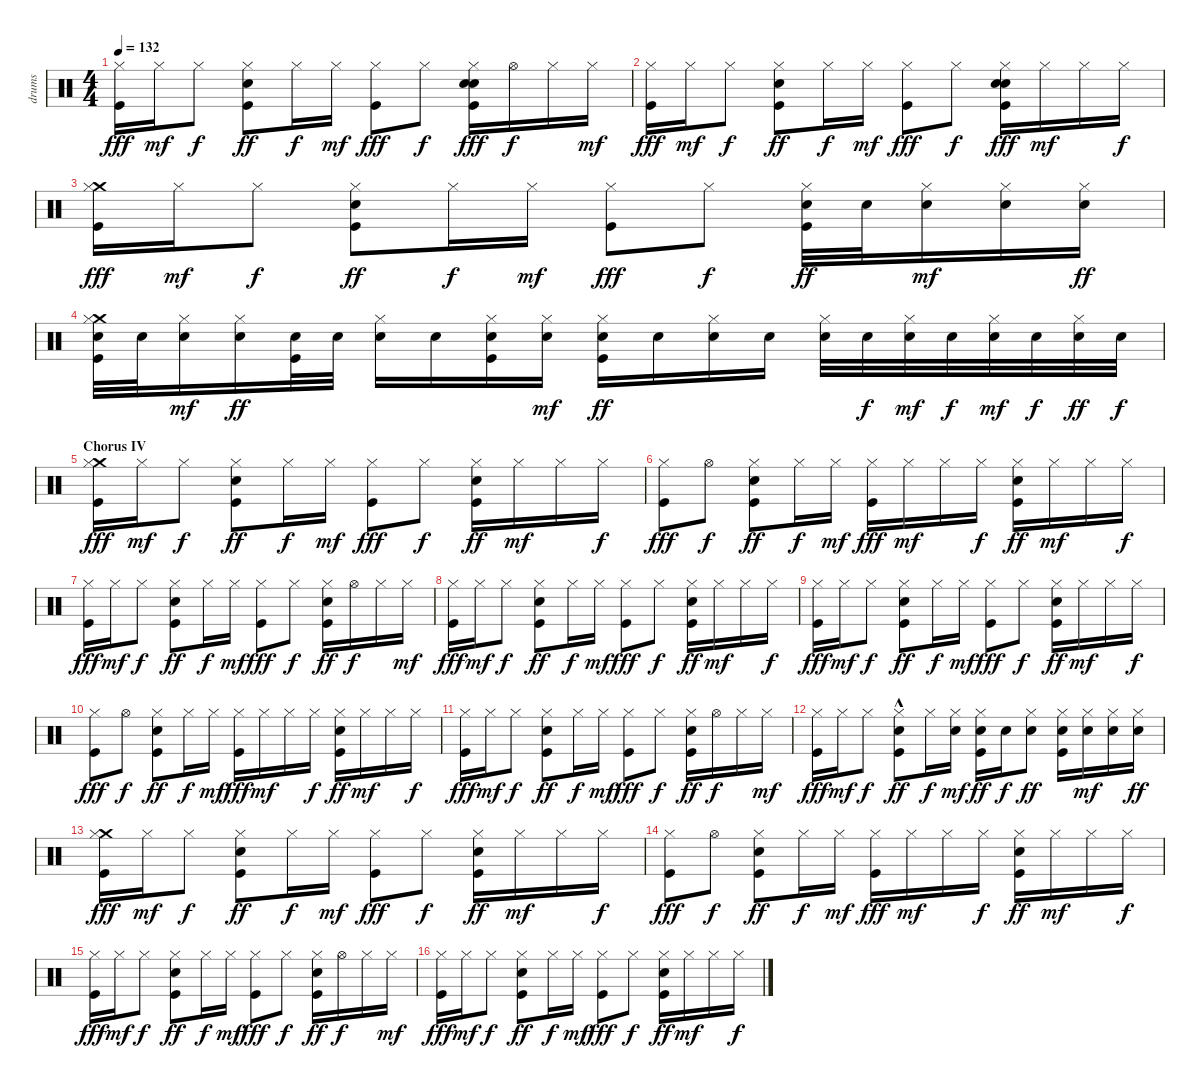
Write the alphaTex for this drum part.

\track ("drums" "drums") {instrument percussion}
\staff {score}
\articulation defaults
\ts (4 4)
\tempo 132
\clef neutral
\ks c
("Kick (hit)" "Hi-Hat (closed)").16{dy fff} "Hi-Hat (closed)".16{dy mf} "Hi-Hat (closed)".8{dy f} ("Kick (hit)" "Electric Snare (hit)" "Hi-Hat (closed)").8{dy ff} "Hi-Hat (closed)".16{dy f} "Hi-Hat (closed)".16{dy mf} ("Kick (hit)" "Hi-Hat (closed)").8{dy fff} "Hi-Hat (closed)".8{dy f} ("Kick (hit)" "Electric Snare (hit)" "Hand Clap (hit)" "Hi-Hat (closed)").16{dy fff} "Hi-Hat (open)".16{dy f} "Hi-Hat (closed)".16 "Hi-Hat (closed)".16{dy mf} |
("Kick (hit)" "Hi-Hat (closed)").16{dy fff} "Hi-Hat (closed)".16{dy mf} "Hi-Hat (closed)".8{dy f} ("Kick (hit)" "Electric Snare (hit)" "Hi-Hat (closed)").8{dy ff} "Hi-Hat (closed)".16{dy f} "Hi-Hat (closed)".16{dy mf} ("Kick (hit)" "Hi-Hat (closed)").8{dy fff} "Hi-Hat (closed)".8{dy f} ("Kick (hit)" "Electric Snare (hit)" "Hand Clap (hit)" "Hi-Hat (closed)").16{dy fff} "Hi-Hat (closed)".16{dy mf} "Hi-Hat (closed)".16 "Hi-Hat (closed)".16{dy f} |
("Kick (hit)" "Crash medium (hit)" "Hi-Hat (closed)").16{dy fff} "Hi-Hat (closed)".16{dy mf} "Hi-Hat (closed)".8{dy f} ("Kick (hit)" "Electric Snare (hit)" "Hi-Hat (closed)").8{dy ff} "Hi-Hat (closed)".16{dy f} "Hi-Hat (closed)".16{dy mf} ("Kick (hit)" "Hi-Hat (closed)").8{dy fff} "Hi-Hat (closed)".8{dy f} ("Kick (hit)" "Electric Snare (hit)" "Hi-Hat (closed)").32{dy ff} "Electric Snare (hit)".32 ("Electric Snare (hit)" "Hi-Hat (closed)").16{dy mf} ("Electric Snare (hit)" "Hi-Hat (closed)").16 ("Electric Snare (hit)" "Hi-Hat (closed)").16{dy ff} |
("Kick (hit)" "Electric Snare (hit)" "Crash medium (hit)" "Hi-Hat (closed)").32 "Electric Snare (hit)".32 ("Electric Snare (hit)" "Hi-Hat (closed)").16{dy mf} ("Electric Snare (hit)" "Hi-Hat (closed)").16{dy ff} ("Kick (hit)" "Electric Snare (hit)").32 "Electric Snare (hit)".32 ("Electric Snare (hit)" "Hi-Hat (closed)").16 "Electric Snare (hit)".16 ("Kick (hit)" "Electric Snare (hit)" "Hi-Hat (closed)").16 ("Electric Snare (hit)" "Hi-Hat (closed)").16{dy mf} ("Kick (hit)" "Electric Snare (hit)" "Hi-Hat (closed)").16{dy ff} "Electric Snare (hit)".16 ("Electric Snare (hit)" "Hi-Hat (closed)").16 "Electric Snare (hit)".16 ("Electric Snare (hit)" "Hi-Hat (closed)").32 "Electric Snare (hit)".32{dy f} ("Electric Snare (hit)" "Hi-Hat (closed)").32{dy mf} "Electric Snare (hit)".32{dy f} ("Electric Snare (hit)" "Hi-Hat (closed)").32{dy mf} "Electric Snare (hit)".32{dy f} ("Electric Snare (hit)" "Hi-Hat (closed)").32{dy ff} "Electric Snare (hit)".32{dy f} |
\section ("" "Chorus IV")
("Kick (hit)" "Crash medium (hit)" "Hi-Hat (closed)").16{dy fff} "Hi-Hat (closed)".16{dy mf} "Hi-Hat (closed)".8{dy f} ("Kick (hit)" "Electric Snare (hit)" "Hi-Hat (closed)").8{dy ff} "Hi-Hat (closed)".16{dy f} "Hi-Hat (closed)".16{dy mf} ("Kick (hit)" "Hi-Hat (closed)").8{dy fff} "Hi-Hat (closed)".8{dy f} ("Kick (hit)" "Electric Snare (hit)" "Hi-Hat (closed)").16{dy ff} "Hi-Hat (closed)".16{dy mf} "Hi-Hat (closed)".16 "Hi-Hat (closed)".16{dy f} |
("Kick (hit)" "Hi-Hat (closed)").8{dy fff} "Hi-Hat (open)".8{dy f} ("Kick (hit)" "Electric Snare (hit)" "Hi-Hat (closed)").8{dy ff} "Hi-Hat (closed)".16{dy f} "Hi-Hat (closed)".16{dy mf} ("Kick (hit)" "Hi-Hat (closed)").16{dy fff} "Hi-Hat (closed)".16{dy mf} "Hi-Hat (closed)".16 "Hi-Hat (closed)".16{dy f} ("Kick (hit)" "Electric Snare (hit)" "Hi-Hat (closed)").16{dy ff} "Hi-Hat (closed)".16{dy mf} "Hi-Hat (closed)".16 "Hi-Hat (closed)".16{dy f} |
("Kick (hit)" "Hi-Hat (closed)").16{dy fff} "Hi-Hat (closed)".16{dy mf} "Hi-Hat (closed)".8{dy f} ("Kick (hit)" "Electric Snare (hit)" "Hi-Hat (closed)").8{dy ff} "Hi-Hat (closed)".16{dy f} "Hi-Hat (closed)".16{dy mf} ("Kick (hit)" "Hi-Hat (closed)").8{dy fff} "Hi-Hat (closed)".8{dy f} ("Kick (hit)" "Electric Snare (hit)" "Hi-Hat (closed)").16{dy ff} "Hi-Hat (open)".16{dy f} "Hi-Hat (closed)".16 "Hi-Hat (closed)".16{dy mf} |
("Kick (hit)" "Hi-Hat (closed)").16{dy fff} "Hi-Hat (closed)".16{dy mf} "Hi-Hat (closed)".8{dy f} ("Kick (hit)" "Electric Snare (hit)" "Hi-Hat (closed)").8{dy ff} "Hi-Hat (closed)".16{dy f} "Hi-Hat (closed)".16{dy mf} ("Kick (hit)" "Hi-Hat (closed)").8{dy fff} "Hi-Hat (closed)".8{dy f} ("Kick (hit)" "Electric Snare (hit)" "Hi-Hat (closed)").16{dy ff} "Hi-Hat (closed)".16{dy mf} "Hi-Hat (closed)".16 "Hi-Hat (closed)".16{dy f} |
("Kick (hit)" "Hi-Hat (closed)").16{dy fff} "Hi-Hat (closed)".16{dy mf} "Hi-Hat (closed)".8{dy f} ("Kick (hit)" "Electric Snare (hit)" "Hi-Hat (closed)").8{dy ff} "Hi-Hat (closed)".16{dy f} "Hi-Hat (closed)".16{dy mf} ("Kick (hit)" "Hi-Hat (closed)").8{dy fff} "Hi-Hat (closed)".8{dy f} ("Kick (hit)" "Electric Snare (hit)" "Hi-Hat (closed)").16{dy ff} "Hi-Hat (closed)".16{dy mf} "Hi-Hat (closed)".16 "Hi-Hat (closed)".16{dy f} |
("Kick (hit)" "Hi-Hat (closed)").8{dy fff} "Hi-Hat (open)".8{dy f} ("Kick (hit)" "Electric Snare (hit)" "Hi-Hat (closed)").8{dy ff} "Hi-Hat (closed)".16{dy f} "Hi-Hat (closed)".16{dy mf} ("Kick (hit)" "Hi-Hat (closed)").16{dy fff} "Hi-Hat (closed)".16{dy mf} "Hi-Hat (closed)".16 "Hi-Hat (closed)".16{dy f} ("Kick (hit)" "Electric Snare (hit)" "Hi-Hat (closed)").16{dy ff} "Hi-Hat (closed)".16{dy mf} "Hi-Hat (closed)".16 "Hi-Hat (closed)".16{dy f} |
("Kick (hit)" "Hi-Hat (closed)").16{dy fff} "Hi-Hat (closed)".16{dy mf} "Hi-Hat (closed)".8{dy f} ("Kick (hit)" "Electric Snare (hit)" "Hi-Hat (closed)").8{dy ff} "Hi-Hat (closed)".16{dy f} "Hi-Hat (closed)".16{dy mf} ("Kick (hit)" "Hi-Hat (closed)").8{dy fff} "Hi-Hat (closed)".8{dy f} ("Kick (hit)" "Electric Snare (hit)" "Hi-Hat (closed)").16{dy ff} "Hi-Hat (open)".16{dy f} "Hi-Hat (closed)".16 "Hi-Hat (closed)".16{dy mf} |
("Kick (hit)" "Hi-Hat (closed)").16{dy fff} "Hi-Hat (closed)".16{dy mf} "Hi-Hat (closed)".8{dy f} ("Kick (hit)"{hac} "Electric Snare (hit)"{hac} "Hi-Hat (closed)").8{dy ff} "Hi-Hat (closed)".16{dy f} ("Electric Snare (hit)" "Hi-Hat (closed)").16{dy mf} ("Kick (hit)" "Electric Snare (hit)" "Hi-Hat (closed)").16{dy ff} "Electric Snare (hit)".16{dy f} ("Electric Snare (hit)" "Hi-Hat (closed)").8{dy ff} ("Kick (hit)" "Electric Snare (hit)" "Hi-Hat (closed)").16 ("Electric Snare (hit)" "Hi-Hat (closed)").16{dy mf} ("Electric Snare (hit)" "Hi-Hat (closed)").16 ("Electric Snare (hit)" "Hi-Hat (closed)").16{dy ff} |
("Kick (hit)" "Crash medium (hit)" "Hi-Hat (closed)").16{dy fff} "Hi-Hat (closed)".16{dy mf} "Hi-Hat (closed)".8{dy f} ("Kick (hit)" "Electric Snare (hit)" "Hi-Hat (closed)").8{dy ff} "Hi-Hat (closed)".16{dy f} "Hi-Hat (closed)".16{dy mf} ("Kick (hit)" "Hi-Hat (closed)").8{dy fff} "Hi-Hat (closed)".8{dy f} ("Kick (hit)" "Electric Snare (hit)" "Hi-Hat (closed)").16{dy ff} "Hi-Hat (closed)".16{dy mf} "Hi-Hat (closed)".16 "Hi-Hat (closed)".16{dy f} |
("Kick (hit)" "Hi-Hat (closed)").8{dy fff} "Hi-Hat (open)".8{dy f} ("Kick (hit)" "Electric Snare (hit)" "Hi-Hat (closed)").8{dy ff} "Hi-Hat (closed)".16{dy f} "Hi-Hat (closed)".16{dy mf} ("Kick (hit)" "Hi-Hat (closed)").16{dy fff} "Hi-Hat (closed)".16{dy mf} "Hi-Hat (closed)".16 "Hi-Hat (closed)".16{dy f} ("Kick (hit)" "Electric Snare (hit)" "Hi-Hat (closed)").16{dy ff} "Hi-Hat (closed)".16{dy mf} "Hi-Hat (closed)".16 "Hi-Hat (closed)".16{dy f} |
("Kick (hit)" "Hi-Hat (closed)").16{dy fff} "Hi-Hat (closed)".16{dy mf} "Hi-Hat (closed)".8{dy f} ("Kick (hit)" "Electric Snare (hit)" "Hi-Hat (closed)").8{dy ff} "Hi-Hat (closed)".16{dy f} "Hi-Hat (closed)".16{dy mf} ("Kick (hit)" "Hi-Hat (closed)").8{dy fff} "Hi-Hat (closed)".8{dy f} ("Kick (hit)" "Electric Snare (hit)" "Hi-Hat (closed)").16{dy ff} "Hi-Hat (open)".16{dy f} "Hi-Hat (closed)".16 "Hi-Hat (closed)".16{dy mf} |
("Kick (hit)" "Hi-Hat (closed)").16{dy fff} "Hi-Hat (closed)".16{dy mf} "Hi-Hat (closed)".8{dy f} ("Kick (hit)" "Electric Snare (hit)" "Hi-Hat (closed)").8{dy ff} "Hi-Hat (closed)".16{dy f} "Hi-Hat (closed)".16{dy mf} ("Kick (hit)" "Hi-Hat (closed)").8{dy fff} "Hi-Hat (closed)".8{dy f} ("Kick (hit)" "Electric Snare (hit)" "Hi-Hat (closed)").16{dy ff} "Hi-Hat (closed)".16{dy mf} "Hi-Hat (closed)".16 "Hi-Hat (closed)".16{dy f}
